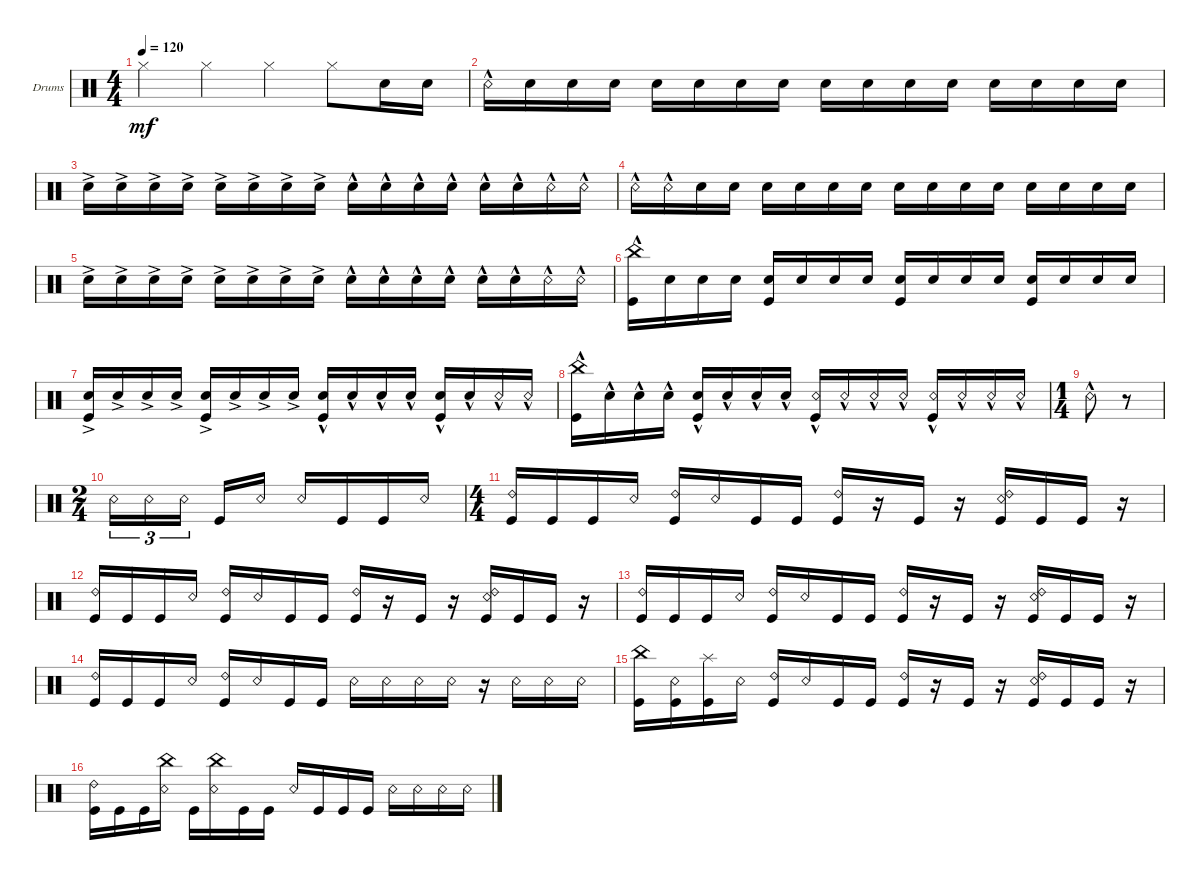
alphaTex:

\defaultSystemsLayout 4
\bracketExtendMode groupsimilarinstruments
\firstSystemTrackNameOrientation horizontal
\otherSystemsTrackNameOrientation horizontal
\track ("Drumkit" "Drums") {instrument percussion}
\staff {score}
\articulation defaults
\ts (4 4)
\scale
0.245206
\tempo 120
\accidentals auto
\clef neutral
\ottava regular
\simile none
\ks c "Hi-Hat (closed)".4{dy mf} "Hi-Hat (closed)".4 "Hi-Hat (closed)".4 "Hi-Hat (closed)".8 "Snare (hit) 2".16 "Snare (hit) 2".16
|
\scale
0.374026 "Snare (rim shot)"{hac}.16 "Snare (hit) 2".16 "Snare (hit) 2".16 "Snare (hit) 2".16 "Snare (hit) 2".16 "Snare (hit) 2".16 "Snare (hit) 2".16 "Snare (hit) 2".16 "Snare (hit) 2".16 "Snare (hit) 2".16 "Snare (hit) 2".16 "Snare (hit) 2".16 "Snare (hit) 2".16 "Snare (hit) 2".16 "Snare (hit) 2".16 "Snare (hit) 2".16 |
\scale
0.380069 "Snare (hit) 2"{ac}.16 "Snare (hit) 2"{ac}.16 "Snare (hit) 2"{ac}.16 "Snare (hit) 2"{ac}.16 "Snare (hit) 2"{ac}.16 "Snare (hit) 2"{ac}.16 "Snare (hit) 2"{ac}.16 "Snare (hit) 2"{ac}.16 "Snare (hit) 2"{hac}.16 "Snare (hit) 2"{hac}.16 "Snare (hit) 2"{hac}.16 "Snare (hit) 2"{hac}.16 "Snare (hit) 2"{hac}.16 "Snare (hit) 2"{hac}.16 "Snare (rim shot)"{hac}.16 "Snare (rim shot)"{hac}.16 |
"Snare (rim shot)"{hac}.16 "Snare (rim shot)"{hac}.16 "Snare (hit) 2".16 "Snare (hit) 2".16 "Snare (hit) 2".16 "Snare (hit) 2".16 "Snare (hit) 2".16 "Snare (hit) 2".16 "Snare (hit) 2".16 "Snare (hit) 2".16 "Snare (hit) 2".16 "Snare (hit) 2".16 "Snare (hit) 2".16 "Snare (hit) 2".16 "Snare (hit) 2".16 "Snare (hit) 2".16 |
"Snare (hit) 2"{ac}.16 "Snare (hit) 2"{ac}.16 "Snare (hit) 2"{ac}.16 "Snare (hit) 2"{ac}.16 "Snare (hit) 2"{ac}.16 "Snare (hit) 2"{ac}.16 "Snare (hit) 2"{ac}.16 "Snare (hit) 2"{ac}.16 "Snare (hit) 2"{hac}.16 "Snare (hit) 2"{hac}.16 "Snare (hit) 2"{hac}.16 "Snare (hit) 2"{hac}.16 "Snare (hit) 2"{hac}.16 "Snare (hit) 2"{hac}.16 "Snare (rim shot)"{hac}.16 "Snare (rim shot)"{hac}.16 |
("China (hit)" "Kick (hit)"{hac}).16 "Snare (hit) 2".16 "Snare (hit) 2".16 "Snare (hit) 2".16 ("Snare (hit) 2" "Kick (hit)").16 "Snare (hit) 2".16 "Snare (hit) 2".16 "Snare (hit) 2".16 ("Snare (hit) 2" "Kick (hit)").16 "Snare (hit) 2".16 "Snare (hit) 2".16 "Snare (hit) 2".16 ("Snare (hit) 2" "Kick (hit)").16 "Snare (hit) 2".16 "Snare (hit) 2".16 "Snare (hit) 2".16 |
("Snare (hit) 2"{ac} "Kick (hit)").16 "Snare (hit) 2"{ac}.16 "Snare (hit) 2"{ac}.16 "Snare (hit) 2"{ac}.16 ("Snare (hit) 2"{ac} "Kick (hit)").16 "Snare (hit) 2"{ac}.16 "Snare (hit) 2"{ac}.16 "Snare (hit) 2"{ac}.16 ("Snare (hit) 2"{hac} "Kick (hit)").16 "Snare (hit) 2"{hac}.16 "Snare (hit) 2"{hac}.16 "Snare (hit) 2"{hac}.16 ("Snare (hit) 2"{hac} "Kick (hit)").16 "Snare (hit) 2"{hac}.16 "Snare (rim shot)"{hac}.16 "Snare (rim shot)"{hac}.16 |
("China (hit)" "Kick (hit)"{hac}).16 "Snare (hit) 2"{hac}.16 "Snare (hit) 2"{hac}.16 "Snare (hit) 2"{hac}.16 ("Snare (hit) 2"{hac} "Kick (hit)"{hac}).16 "Snare (hit) 2"{hac}.16 "Snare (hit) 2"{hac}.16 "Snare (hit) 2"{hac}.16 ("Snare (rim shot)"{hac} "Kick (hit)"{hac}).16 "Snare (rim shot)"{hac}.16 "Snare (rim shot)"{hac}.16 "Snare (rim shot)"{hac}.16 ("Snare (rim shot)"{hac} "Kick (hit)"{hac}).16 "Snare (rim shot)"{hac}.16 "Snare (rim shot)"{hac}.16 "Snare (rim shot)"{hac}.16 |
\ts (1 4)
"Snare (rim shot)"{hac}.8 r.8 |
\ts (2 4)
"Snare (rim shot)".16{tu (3 2)} "Snare (rim shot)".16{tu (3 2)} "Snare (rim shot)".16{tu (3 2)} "Kick (hit)".16 "Snare (rim shot)".16 "Snare (rim shot)".16 "Kick (hit)".16 "Kick (hit)".16 "Snare (rim shot)".16 |
\ts (4 4)
("Kick (hit)" "Ride (bell) 2").16 "Kick (hit)".16 "Kick (hit)".16 "Snare (rim shot)".16 ("Kick (hit)" "Ride (bell) 2").16 "Snare (rim shot)".16 "Kick (hit)".16 "Kick (hit)".16 ("Kick (hit)" "Ride (bell) 2").16 r.16 "Kick (hit)".16 r.16 ("Kick (hit)" "Ride (bell) 2" "Snare (rim shot)").16 "Kick (hit)".16 "Kick (hit)".16 r.16 |
("Kick (hit)" "Ride (bell) 2").16 "Kick (hit)".16 "Kick (hit)".16 "Snare (rim shot)".16 ("Kick (hit)" "Ride (bell) 2").16 "Snare (rim shot)".16 "Kick (hit)".16 "Kick (hit)".16 ("Kick (hit)" "Ride (bell) 2").16 r.16 "Kick (hit)".16 r.16 ("Kick (hit)" "Ride (bell) 2" "Snare (rim shot)").16 "Kick (hit)".16 "Kick (hit)".16 r.16 |
("Kick (hit)" "Ride (bell) 2").16 "Kick (hit)".16 "Kick (hit)".16 "Snare (rim shot)".16 ("Kick (hit)" "Ride (bell) 2").16 "Snare (rim shot)".16 "Kick (hit)".16 "Kick (hit)".16 ("Kick (hit)" "Ride (bell) 2").16 r.16 "Kick (hit)".16 r.16 ("Kick (hit)" "Ride (bell) 2" "Snare (rim shot)").16 "Kick (hit)".16 "Kick (hit)".16 r.16 |
("Kick (hit)" "Ride (bell) 2").16 "Kick (hit)".16 "Kick (hit)".16 "Snare (rim shot)".16 ("Kick (hit)" "Ride (bell) 2").16 "Snare (rim shot)".16 "Kick (hit)".16 "Kick (hit)".16 "Snare (rim shot)".16 "Snare (rim shot)".16 "Snare (rim shot)".16 "Snare (rim shot)".16 r.16 "Snare (rim shot)".16 "Snare (rim shot)".16 "Snare (rim shot)".16 |
("Kick (hit)" "China (hit)").16 ("Kick (hit)" "Snare (rim shot)").16 ("Kick (hit)" "Splash (hit)").16 "Snare (rim shot)".16 ("Kick (hit)" "Ride (bell) 2").16 "Snare (rim shot)".16 "Kick (hit)".16 "Kick (hit)".16 ("Kick (hit)" "Ride (bell) 2").16 r.16 "Kick (hit)".16 r.16 ("Kick (hit)" "Snare (rim shot)" "Ride (bell) 2").16 "Kick (hit)".16 "Kick (hit)".16 r.16 |
("Kick (hit)" "Ride (bell) 2").16 "Kick (hit)".16 "Kick (hit)".16 ("Snare (rim shot)" "China (hit)").16 "Kick (hit)".16 ("Snare (rim shot)" "China (hit)").16 "Kick (hit)".16 "Kick (hit)".16 "Snare (rim shot)".16 "Kick (hit)".16 "Kick (hit)".16 "Kick (hit)".16 "Snare (rim shot)".16 "Snare (rim shot)".16 "Snare (rim shot)".16 "Snare (rim shot)".16
